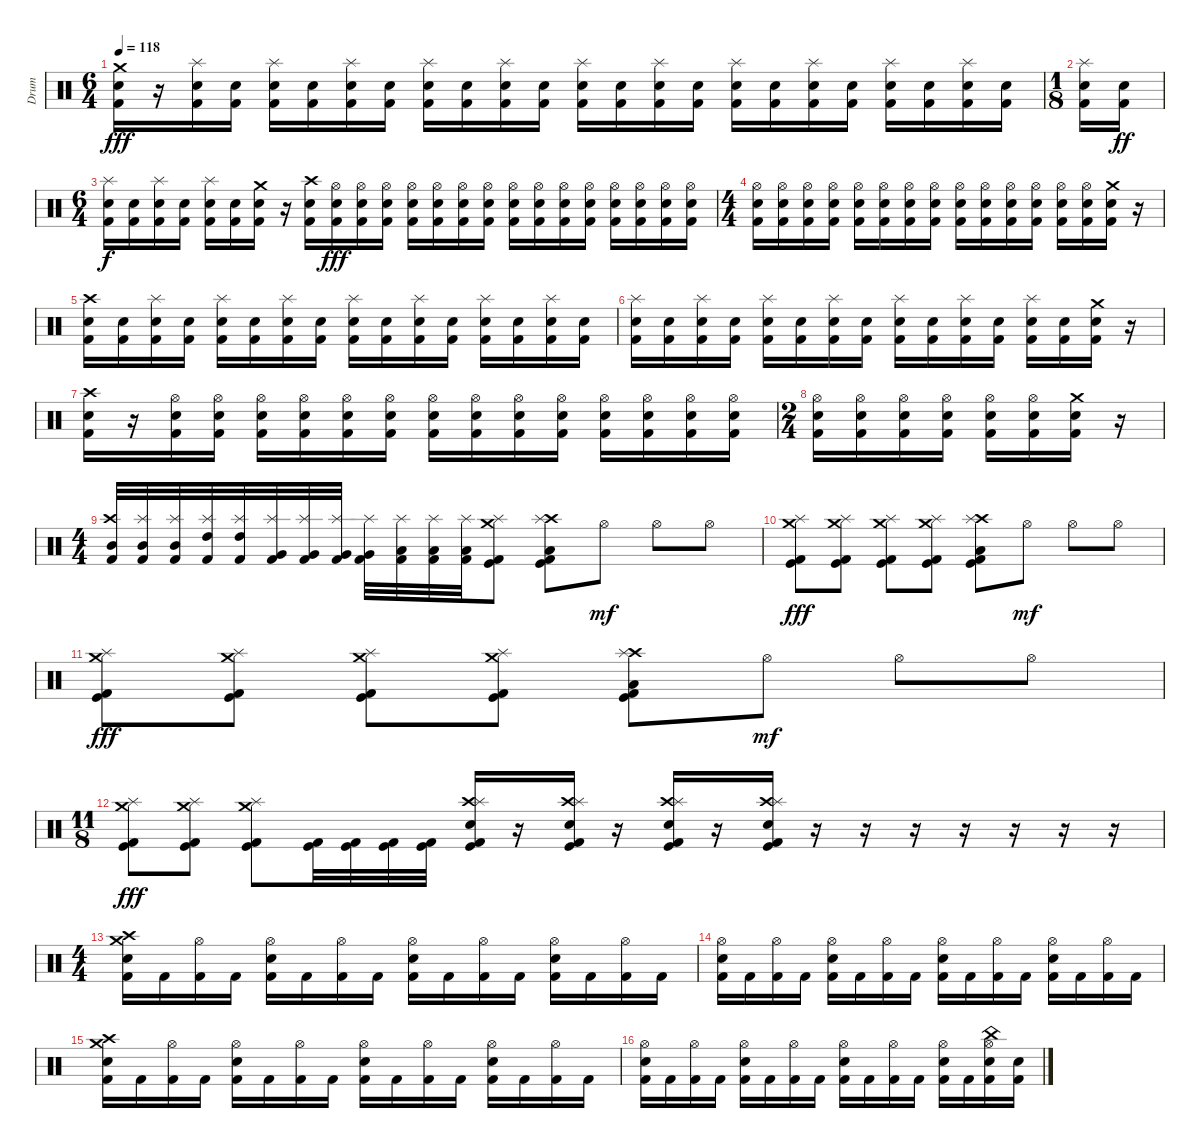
\track ("Drum" "Drum") {instrument percussion}
\staff {score}
\articulation defaults
\ts (6 4)
\tempo 118
\clef neutral
\ks c
("Crash medium (hit)" "Electric Snare (hit)" "Kick (hit) 2").16{dy fff} r.16 ("Splash (hit)" "Electric Snare (hit)" "Kick (hit) 2").16 ("Electric Snare (hit)" "Kick (hit) 2").16 ("Splash (hit)" "Electric Snare (hit)" "Kick (hit) 2").16 ("Electric Snare (hit)" "Kick (hit) 2").16 ("Splash (hit)" "Electric Snare (hit)" "Kick (hit) 2").16 ("Electric Snare (hit)" "Kick (hit) 2").16 ("Splash (hit)" "Electric Snare (hit)" "Kick (hit) 2").16 ("Electric Snare (hit)" "Kick (hit) 2").16 ("Splash (hit)" "Electric Snare (hit)" "Kick (hit) 2").16 ("Electric Snare (hit)" "Kick (hit) 2").16 ("Splash (hit)" "Electric Snare (hit)" "Kick (hit) 2").16 ("Electric Snare (hit)" "Kick (hit) 2").16 ("Splash (hit)" "Electric Snare (hit)" "Kick (hit) 2").16 ("Electric Snare (hit)" "Kick (hit) 2").16 ("Splash (hit)" "Electric Snare (hit)" "Kick (hit) 2").16 ("Electric Snare (hit)" "Kick (hit) 2").16 ("Splash (hit)" "Electric Snare (hit)" "Kick (hit) 2").16 ("Electric Snare (hit)" "Kick (hit) 2").16 ("Splash (hit)" "Electric Snare (hit)" "Kick (hit) 2").16 ("Electric Snare (hit)" "Kick (hit) 2").16 ("Splash (hit)" "Electric Snare (hit)" "Kick (hit) 2").16 ("Electric Snare (hit)" "Kick (hit) 2").16 |
\ts (1 8)
("Splash (hit)" "Electric Snare (hit)" "Kick (hit) 2").16 ("Electric Snare (hit)" "Kick (hit) 2").16{dy ff} |
\ts (6 4)
("Splash (hit)" "Electric Snare (hit)" "Kick (hit) 2").16{dy f} ("Electric Snare (hit)" "Kick (hit) 2").16 ("Splash (hit)" "Electric Snare (hit)" "Kick (hit) 2").16 ("Electric Snare (hit)" "Kick (hit) 2").16 ("Splash (hit)" "Electric Snare (hit)" "Kick (hit) 2").16 ("Electric Snare (hit)" "Kick (hit) 2").16 ("Crash medium (hit)" "Electric Snare (hit)" "Kick (hit) 2").16 r.16 ("Crash high (hit)" "Electric Snare (hit)" "Kick (hit) 2").16 ("Hi-Hat (open)" "Electric Snare (hit)" "Kick (hit) 2").16{dy fff} ("Hi-Hat (open)" "Electric Snare (hit)" "Kick (hit) 2").16 ("Hi-Hat (open)" "Electric Snare (hit)" "Kick (hit) 2").16 ("Hi-Hat (open)" "Electric Snare (hit)" "Kick (hit) 2").16 ("Hi-Hat (open)" "Electric Snare (hit)" "Kick (hit) 2").16 ("Hi-Hat (open)" "Electric Snare (hit)" "Kick (hit) 2").16 ("Hi-Hat (open)" "Electric Snare (hit)" "Kick (hit) 2").16 ("Hi-Hat (open)" "Electric Snare (hit)" "Kick (hit) 2").16 ("Hi-Hat (open)" "Electric Snare (hit)" "Kick (hit) 2").16 ("Hi-Hat (open)" "Electric Snare (hit)" "Kick (hit) 2").16 ("Hi-Hat (open)" "Electric Snare (hit)" "Kick (hit) 2").16 ("Hi-Hat (open)" "Electric Snare (hit)" "Kick (hit) 2").16 ("Hi-Hat (open)" "Electric Snare (hit)" "Kick (hit) 2").16 ("Hi-Hat (open)" "Electric Snare (hit)" "Kick (hit) 2").16 ("Hi-Hat (open)" "Electric Snare (hit)" "Kick (hit) 2").16 |
\ts (4 4)
("Hi-Hat (open)" "Electric Snare (hit)" "Kick (hit) 2").16 ("Hi-Hat (open)" "Electric Snare (hit)" "Kick (hit) 2").16 ("Hi-Hat (open)" "Electric Snare (hit)" "Kick (hit) 2").16 ("Hi-Hat (open)" "Electric Snare (hit)" "Kick (hit) 2").16 ("Hi-Hat (open)" "Electric Snare (hit)" "Kick (hit) 2").16 ("Hi-Hat (open)" "Electric Snare (hit)" "Kick (hit) 2").16 ("Hi-Hat (open)" "Electric Snare (hit)" "Kick (hit) 2").16 ("Hi-Hat (open)" "Electric Snare (hit)" "Kick (hit) 2").16 ("Hi-Hat (open)" "Electric Snare (hit)" "Kick (hit) 2").16 ("Hi-Hat (open)" "Electric Snare (hit)" "Kick (hit) 2").16 ("Hi-Hat (open)" "Electric Snare (hit)" "Kick (hit) 2").16 ("Hi-Hat (open)" "Electric Snare (hit)" "Kick (hit) 2").16 ("Hi-Hat (open)" "Electric Snare (hit)" "Kick (hit) 2").16 ("Hi-Hat (open)" "Electric Snare (hit)" "Kick (hit) 2").16 ("Crash medium (hit)" "Electric Snare (hit)" "Kick (hit) 2").16 r.16 |
("Crash high (hit)" "Electric Snare (hit)" "Kick (hit) 2").16 ("Electric Snare (hit)" "Kick (hit) 2").16 ("Splash (hit)" "Electric Snare (hit)" "Kick (hit) 2").16 ("Electric Snare (hit)" "Kick (hit) 2").16 ("Splash (hit)" "Electric Snare (hit)" "Kick (hit) 2").16 ("Electric Snare (hit)" "Kick (hit) 2").16 ("Splash (hit)" "Electric Snare (hit)" "Kick (hit) 2").16 ("Electric Snare (hit)" "Kick (hit) 2").16 ("Splash (hit)" "Electric Snare (hit)" "Kick (hit) 2").16 ("Electric Snare (hit)" "Kick (hit) 2").16 ("Splash (hit)" "Electric Snare (hit)" "Kick (hit) 2").16 ("Electric Snare (hit)" "Kick (hit) 2").16 ("Splash (hit)" "Electric Snare (hit)" "Kick (hit) 2").16 ("Electric Snare (hit)" "Kick (hit) 2").16 ("Splash (hit)" "Electric Snare (hit)" "Kick (hit) 2").16 ("Electric Snare (hit)" "Kick (hit) 2").16 |
("Splash (hit)" "Electric Snare (hit)" "Kick (hit) 2").16 ("Electric Snare (hit)" "Kick (hit) 2").16 ("Splash (hit)" "Electric Snare (hit)" "Kick (hit) 2").16 ("Electric Snare (hit)" "Kick (hit) 2").16 ("Splash (hit)" "Electric Snare (hit)" "Kick (hit) 2").16 ("Electric Snare (hit)" "Kick (hit) 2").16 ("Splash (hit)" "Electric Snare (hit)" "Kick (hit) 2").16 ("Electric Snare (hit)" "Kick (hit) 2").16 ("Splash (hit)" "Electric Snare (hit)" "Kick (hit) 2").16 ("Electric Snare (hit)" "Kick (hit) 2").16 ("Splash (hit)" "Electric Snare (hit)" "Kick (hit) 2").16 ("Electric Snare (hit)" "Kick (hit) 2").16 ("Splash (hit)" "Electric Snare (hit)" "Kick (hit) 2").16 ("Electric Snare (hit)" "Kick (hit) 2").16 ("Crash medium (hit)" "Electric Snare (hit)" "Kick (hit) 2").16 r.16 |
("Crash high (hit)" "Electric Snare (hit)" "Kick (hit) 2").16 r.16 ("Hi-Hat (open)" "Electric Snare (hit)" "Kick (hit) 2").16 ("Hi-Hat (open)" "Electric Snare (hit)" "Kick (hit) 2").16 ("Hi-Hat (open)" "Electric Snare (hit)" "Kick (hit) 2").16 ("Hi-Hat (open)" "Electric Snare (hit)" "Kick (hit) 2").16 ("Hi-Hat (open)" "Electric Snare (hit)" "Kick (hit) 2").16 ("Hi-Hat (open)" "Electric Snare (hit)" "Kick (hit) 2").16 ("Hi-Hat (open)" "Electric Snare (hit)" "Kick (hit) 2").16 ("Hi-Hat (open)" "Electric Snare (hit)" "Kick (hit) 2").16 ("Hi-Hat (open)" "Electric Snare (hit)" "Kick (hit) 2").16 ("Hi-Hat (open)" "Electric Snare (hit)" "Kick (hit) 2").16 ("Hi-Hat (open)" "Electric Snare (hit)" "Kick (hit) 2").16 ("Hi-Hat (open)" "Electric Snare (hit)" "Kick (hit) 2").16 ("Hi-Hat (open)" "Electric Snare (hit)" "Kick (hit) 2").16 ("Hi-Hat (open)" "Electric Snare (hit)" "Kick (hit) 2").16 |
\ts (2 4)
("Hi-Hat (open)" "Electric Snare (hit)" "Kick (hit) 2").16 ("Hi-Hat (open)" "Electric Snare (hit)" "Kick (hit) 2").16 ("Hi-Hat (open)" "Electric Snare (hit)" "Kick (hit) 2").16 ("Hi-Hat (open)" "Electric Snare (hit)" "Kick (hit) 2").16 ("Hi-Hat (open)" "Electric Snare (hit)" "Kick (hit) 2").16 ("Hi-Hat (open)" "Electric Snare (hit)" "Kick (hit) 2").16 ("Crash medium (hit)" "Electric Snare (hit)" "Kick (hit) 2").16 r.16 |
\ts (4 4)
("Crash high (hit)" "Mid Tom (hit)" "Kick (hit) 2").32 ("Splash (hit)" "Mid Tom (hit)" "Kick (hit) 2").32 ("Splash (hit)" "Mid Tom (hit)" "Kick (hit) 2").32 ("Splash (hit)" "High Tom (hit)" "Kick (hit) 2").32 ("Splash (hit)" "High Tom (hit)" "Kick (hit) 2").32 ("Splash (hit)" "Very Low Tom (hit)" "Kick (hit) 2").32 ("Splash (hit)" "Very Low Tom (hit)" "Kick (hit) 2").32 ("Splash (hit)" "Very Low Tom (hit)" "Kick (hit) 2").32 ("Splash (hit)" "Very Low Tom (hit)" "Kick (hit) 2").32 ("Splash (hit)" "Low Tom (hit)" "Kick (hit) 2").32 ("Splash (hit)" "Low Tom (hit)" "Kick (hit) 2").32 ("Splash (hit)" "Low Tom (hit)" "Kick (hit) 2").32 ("Crash medium (hit)" "Splash (hit)" "Kick (hit)" "Kick (hit) 2").8 ("Crash high (hit)" "Splash (hit)" "Low Floor Tom (hit)" "Kick (hit)" "Kick (hit) 2").8 "Hi-Hat (open)".8{dy mf} "Hi-Hat (open)".8 "Hi-Hat (open)".8 |
("Crash medium (hit)" "Splash (hit)" "Kick (hit)" "Kick (hit) 2").8{dy fff} ("Crash medium (hit)" "Splash (hit)" "Kick (hit)" "Kick (hit) 2").8 ("Crash medium (hit)" "Splash (hit)" "Kick (hit)" "Kick (hit) 2").8 ("Crash medium (hit)" "Splash (hit)" "Kick (hit)" "Kick (hit) 2").8 ("Crash high (hit)" "Splash (hit)" "Low Floor Tom (hit)" "Kick (hit)" "Kick (hit) 2").8 "Hi-Hat (open)".8{dy mf} "Hi-Hat (open)".8 "Hi-Hat (open)".8 |
("Crash medium (hit)" "Splash (hit)" "Kick (hit)" "Kick (hit) 2").8{dy fff} ("Crash medium (hit)" "Splash (hit)" "Kick (hit)" "Kick (hit) 2").8 ("Crash medium (hit)" "Splash (hit)" "Kick (hit)" "Kick (hit) 2").8 ("Crash medium (hit)" "Splash (hit)" "Kick (hit)" "Kick (hit) 2").8 ("Crash high (hit)" "Splash (hit)" "Low Floor Tom (hit)" "Kick (hit)" "Kick (hit) 2").8 "Hi-Hat (open)".8{dy mf} "Hi-Hat (open)".8 "Hi-Hat (open)".8 |
\ts (11 8)
("Crash medium (hit)" "Splash (hit)" "Kick (hit)" "Kick (hit) 2").8{dy fff} ("Crash medium (hit)" "Splash (hit)" "Kick (hit)" "Kick (hit) 2").8 ("Crash medium (hit)" "Splash (hit)" "Kick (hit)" "Kick (hit) 2").8 ("Kick (hit)" "Kick (hit) 2").32 ("Kick (hit)" "Kick (hit) 2").32 ("Kick (hit)" "Kick (hit) 2").32 ("Kick (hit)" "Kick (hit) 2").32 ("Crash high (hit)" "Splash (hit)" "Electric Snare (hit)" "Kick (hit)" "Kick (hit) 2").16 r.16 ("Crash high (hit)" "Splash (hit)" "Electric Snare (hit)" "Kick (hit)" "Kick (hit) 2").16 r.16 ("Crash high (hit)" "Splash (hit)" "Electric Snare (hit)" "Kick (hit)" "Kick (hit) 2").16 r.16 ("Crash high (hit)" "Splash (hit)" "Electric Snare (hit)" "Kick (hit)" "Kick (hit) 2").16 r.16 r.16 r.16 r.16 r.16 r.16 r.16 |
\ts (4 4)
("Crash medium (hit)" "Crash high (hit)" "Electric Snare (hit)" "Kick (hit) 2").16 "Kick (hit) 2".16 ("Hi-Hat (open)" "Kick (hit) 2").16 "Kick (hit) 2".16 ("Hi-Hat (open)" "Electric Snare (hit)" "Kick (hit) 2").16 "Kick (hit) 2".16 ("Hi-Hat (open)" "Kick (hit) 2").16 "Kick (hit) 2".16 ("Hi-Hat (open)" "Electric Snare (hit)" "Kick (hit) 2").16 "Kick (hit) 2".16 ("Hi-Hat (open)" "Kick (hit) 2").16 "Kick (hit) 2".16 ("Hi-Hat (open)" "Electric Snare (hit)" "Kick (hit) 2").16 "Kick (hit) 2".16 ("Hi-Hat (open)" "Kick (hit) 2").16 "Kick (hit) 2".16 |
("Hi-Hat (open)" "Electric Snare (hit)" "Kick (hit) 2").16 "Kick (hit) 2".16 ("Hi-Hat (open)" "Kick (hit) 2").16 "Kick (hit) 2".16 ("Hi-Hat (open)" "Electric Snare (hit)" "Kick (hit) 2").16 "Kick (hit) 2".16 ("Hi-Hat (open)" "Kick (hit) 2").16 "Kick (hit) 2".16 ("Hi-Hat (open)" "Electric Snare (hit)" "Kick (hit) 2").16 "Kick (hit) 2".16 ("Hi-Hat (open)" "Kick (hit) 2").16 "Kick (hit) 2".16 ("Hi-Hat (open)" "Electric Snare (hit)" "Kick (hit) 2").16 "Kick (hit) 2".16 ("Hi-Hat (open)" "Kick (hit) 2").16 "Kick (hit) 2".16 |
("Crash medium (hit)" "Crash high (hit)" "Electric Snare (hit)" "Kick (hit) 2").16 "Kick (hit) 2".16 ("Hi-Hat (open)" "Kick (hit) 2").16 "Kick (hit) 2".16 ("Hi-Hat (open)" "Electric Snare (hit)" "Kick (hit) 2").16 "Kick (hit) 2".16 ("Hi-Hat (open)" "Kick (hit) 2").16 "Kick (hit) 2".16 ("Hi-Hat (open)" "Electric Snare (hit)" "Kick (hit) 2").16 "Kick (hit) 2".16 ("Hi-Hat (open)" "Kick (hit) 2").16 "Kick (hit) 2".16 ("Hi-Hat (open)" "Electric Snare (hit)" "Kick (hit) 2").16 "Kick (hit) 2".16 ("Hi-Hat (open)" "Kick (hit) 2").16 "Kick (hit) 2".16 |
("Hi-Hat (open)" "Electric Snare (hit)" "Kick (hit) 2").16 "Kick (hit) 2".16 ("Hi-Hat (open)" "Kick (hit) 2").16 "Kick (hit) 2".16 ("Hi-Hat (open)" "Electric Snare (hit)" "Kick (hit) 2").16 "Kick (hit) 2".16 ("Hi-Hat (open)" "Kick (hit) 2").16 "Kick (hit) 2".16 ("Hi-Hat (open)" "Electric Snare (hit)" "Kick (hit) 2").16 "Kick (hit) 2".16 ("Hi-Hat (open)" "Kick (hit) 2").16 "Kick (hit) 2".16 ("Hi-Hat (open)" "Electric Snare (hit)" "Kick (hit) 2").16 "Kick (hit) 2".16 ("China (hit)" "Hi-Hat (open)" "Electric Snare (hit)" "Kick (hit) 2").16 ("Electric Snare (hit)" "Kick (hit) 2").16
